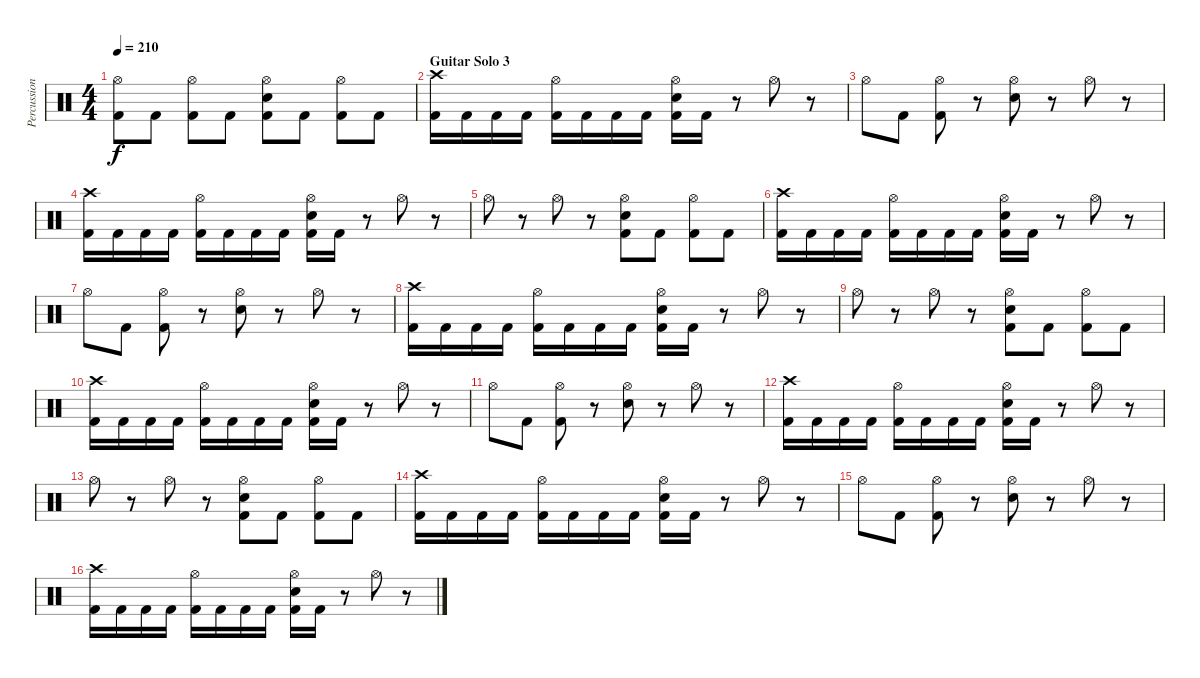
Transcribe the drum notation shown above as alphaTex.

\track ("Percussion" "Percussion") {instrument percussion}
\staff {score}
\articulation defaults
\ts (4 4)
\tempo 210
\clef neutral
\ks c
("Hi-Hat (open)" "Kick (hit) 2").8{dy f} "Kick (hit) 2".8 ("Hi-Hat (open)" "Kick (hit) 2").8 "Kick (hit) 2".8 ("Hi-Hat (open)" "Electric Snare (hit)" "Kick (hit) 2").8 "Kick (hit) 2".8 ("Hi-Hat (open)" "Kick (hit) 2").8 "Kick (hit) 2".8 |
\section ("" "Guitar Solo 3")
("Crash high (hit)" "Kick (hit) 2").16 "Kick (hit) 2".16 "Kick (hit) 2".16 "Kick (hit) 2".16 ("Hi-Hat (open)" "Kick (hit) 2").16 "Kick (hit) 2".16 "Kick (hit) 2".16 "Kick (hit) 2".16 ("Hi-Hat (open)" "Electric Snare (hit)" "Kick (hit) 2").16 "Kick (hit) 2".16 r.8 "Hi-Hat (open)".8 r.8 |
"Hi-Hat (open)".8 "Kick (hit) 2".8 ("Hi-Hat (open)" "Kick (hit) 2").8 r.8 ("Hi-Hat (open)" "Electric Snare (hit)").8 r.8 "Hi-Hat (open)".8 r.8 |
("Crash high (hit)" "Kick (hit) 2").16 "Kick (hit) 2".16 "Kick (hit) 2".16 "Kick (hit) 2".16 ("Hi-Hat (open)" "Kick (hit) 2").16 "Kick (hit) 2".16 "Kick (hit) 2".16 "Kick (hit) 2".16 ("Hi-Hat (open)" "Electric Snare (hit)" "Kick (hit) 2").16 "Kick (hit) 2".16 r.8 "Hi-Hat (open)".8 r.8 |
"Hi-Hat (open)".8 r.8 "Hi-Hat (open)".8 r.8 ("Hi-Hat (open)" "Electric Snare (hit)" "Kick (hit) 2").8 "Kick (hit) 2".8 ("Hi-Hat (open)" "Kick (hit) 2").8 "Kick (hit) 2".8 |
("Crash high (hit)" "Kick (hit) 2").16 "Kick (hit) 2".16 "Kick (hit) 2".16 "Kick (hit) 2".16 ("Hi-Hat (open)" "Kick (hit) 2").16 "Kick (hit) 2".16 "Kick (hit) 2".16 "Kick (hit) 2".16 ("Hi-Hat (open)" "Electric Snare (hit)" "Kick (hit) 2").16 "Kick (hit) 2".16 r.8 "Hi-Hat (open)".8 r.8 |
"Hi-Hat (open)".8 "Kick (hit) 2".8 ("Hi-Hat (open)" "Kick (hit) 2").8 r.8 ("Hi-Hat (open)" "Electric Snare (hit)").8 r.8 "Hi-Hat (open)".8 r.8 |
("Crash high (hit)" "Kick (hit) 2").16 "Kick (hit) 2".16 "Kick (hit) 2".16 "Kick (hit) 2".16 ("Hi-Hat (open)" "Kick (hit) 2").16 "Kick (hit) 2".16 "Kick (hit) 2".16 "Kick (hit) 2".16 ("Hi-Hat (open)" "Electric Snare (hit)" "Kick (hit) 2").16 "Kick (hit) 2".16 r.8 "Hi-Hat (open)".8 r.8 |
"Hi-Hat (open)".8 r.8 "Hi-Hat (open)".8 r.8 ("Hi-Hat (open)" "Electric Snare (hit)" "Kick (hit) 2").8 "Kick (hit) 2".8 ("Hi-Hat (open)" "Kick (hit) 2").8 "Kick (hit) 2".8 |
("Crash high (hit)" "Kick (hit) 2").16 "Kick (hit) 2".16 "Kick (hit) 2".16 "Kick (hit) 2".16 ("Hi-Hat (open)" "Kick (hit) 2").16 "Kick (hit) 2".16 "Kick (hit) 2".16 "Kick (hit) 2".16 ("Hi-Hat (open)" "Electric Snare (hit)" "Kick (hit) 2").16 "Kick (hit) 2".16 r.8 "Hi-Hat (open)".8 r.8 |
"Hi-Hat (open)".8 "Kick (hit) 2".8 ("Hi-Hat (open)" "Kick (hit) 2").8 r.8 ("Hi-Hat (open)" "Electric Snare (hit)").8 r.8 "Hi-Hat (open)".8 r.8 |
("Crash high (hit)" "Kick (hit) 2").16 "Kick (hit) 2".16 "Kick (hit) 2".16 "Kick (hit) 2".16 ("Hi-Hat (open)" "Kick (hit) 2").16 "Kick (hit) 2".16 "Kick (hit) 2".16 "Kick (hit) 2".16 ("Hi-Hat (open)" "Electric Snare (hit)" "Kick (hit) 2").16 "Kick (hit) 2".16 r.8 "Hi-Hat (open)".8 r.8 |
"Hi-Hat (open)".8 r.8 "Hi-Hat (open)".8 r.8 ("Hi-Hat (open)" "Electric Snare (hit)" "Kick (hit) 2").8 "Kick (hit) 2".8 ("Hi-Hat (open)" "Kick (hit) 2").8 "Kick (hit) 2".8 |
("Crash high (hit)" "Kick (hit) 2").16 "Kick (hit) 2".16 "Kick (hit) 2".16 "Kick (hit) 2".16 ("Hi-Hat (open)" "Kick (hit) 2").16 "Kick (hit) 2".16 "Kick (hit) 2".16 "Kick (hit) 2".16 ("Hi-Hat (open)" "Electric Snare (hit)" "Kick (hit) 2").16 "Kick (hit) 2".16 r.8 "Hi-Hat (open)".8 r.8 |
"Hi-Hat (open)".8 "Kick (hit) 2".8 ("Hi-Hat (open)" "Kick (hit) 2").8 r.8 ("Hi-Hat (open)" "Electric Snare (hit)").8 r.8 "Hi-Hat (open)".8 r.8 |
("Crash high (hit)" "Kick (hit) 2").16 "Kick (hit) 2".16 "Kick (hit) 2".16 "Kick (hit) 2".16 ("Hi-Hat (open)" "Kick (hit) 2").16 "Kick (hit) 2".16 "Kick (hit) 2".16 "Kick (hit) 2".16 ("Hi-Hat (open)" "Electric Snare (hit)" "Kick (hit) 2").16 "Kick (hit) 2".16 r.8 "Hi-Hat (open)".8 r.8
